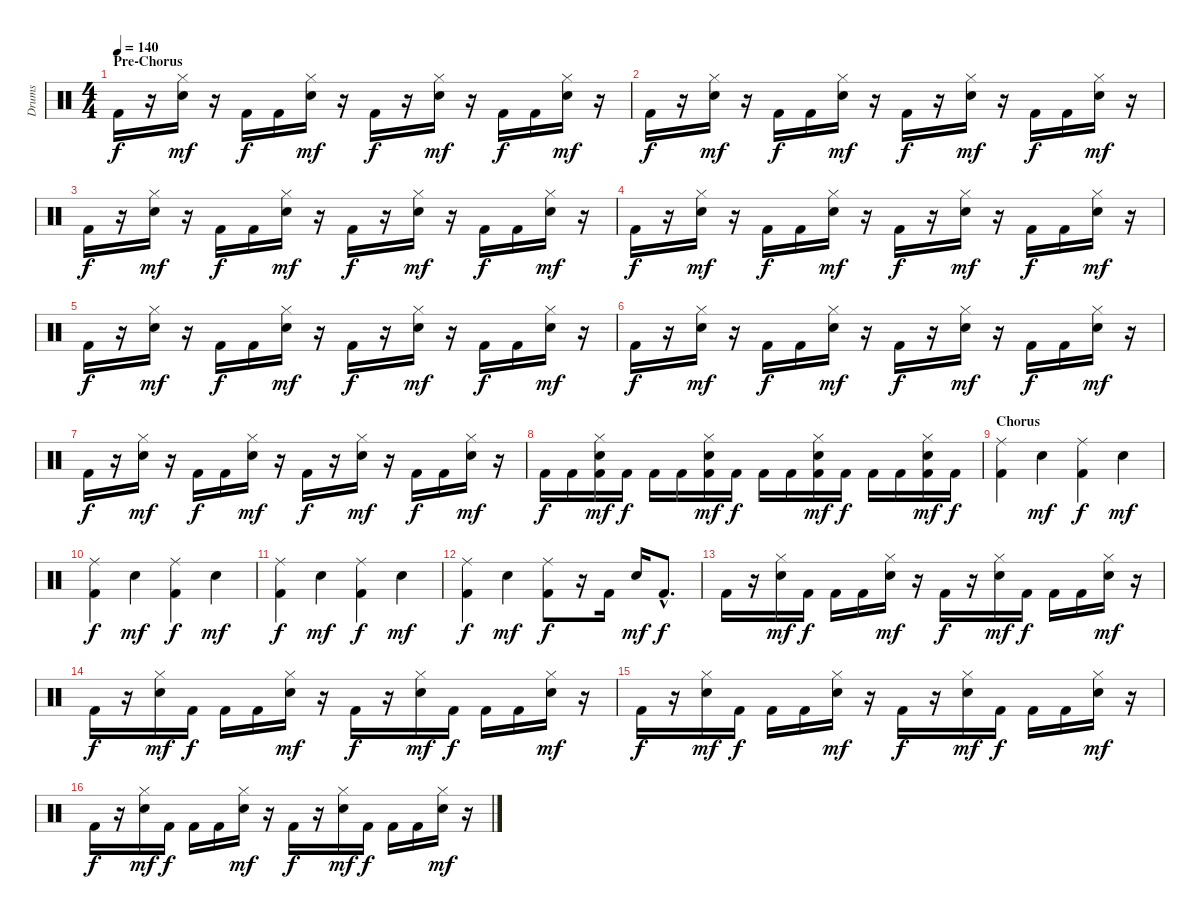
\track ("Drums" "Drums") {instrument percussion}
\staff {score}
\articulation defaults
\ts (4 4)
\section ("" "Pre-Chorus")
\tempo 140
\clef neutral
\ks c "Kick (hit) 2".16{dy f}
r.16 ("Snare (hit) 2" "Hi-Hat (closed)").16{dy mf} r.16 "Kick (hit) 2".16{dy f} "Kick (hit) 2".16 ("Snare (hit) 2" "Hi-Hat (closed)").16{dy mf} r.16 "Kick (hit) 2".16{dy f} r.16 ("Snare (hit) 2" "Hi-Hat (closed)").16{dy mf} r.16 "Kick (hit) 2".16{dy f} "Kick (hit) 2".16 ("Snare (hit) 2" "Hi-Hat (closed)").16{dy mf} r.16 |
"Kick (hit) 2".16{dy f} r.16 ("Snare (hit) 2" "Hi-Hat (closed)").16{dy mf} r.16 "Kick (hit) 2".16{dy f} "Kick (hit) 2".16 ("Snare (hit) 2" "Hi-Hat (closed)").16{dy mf} r.16 "Kick (hit) 2".16{dy f} r.16 ("Snare (hit) 2" "Hi-Hat (closed)").16{dy mf} r.16 "Kick (hit) 2".16{dy f} "Kick (hit) 2".16 ("Snare (hit) 2" "Hi-Hat (closed)").16{dy mf} r.16 |
"Kick (hit) 2".16{dy f} r.16 ("Snare (hit) 2" "Hi-Hat (closed)").16{dy mf} r.16 "Kick (hit) 2".16{dy f} "Kick (hit) 2".16 ("Snare (hit) 2" "Hi-Hat (closed)").16{dy mf} r.16 "Kick (hit) 2".16{dy f} r.16 ("Snare (hit) 2" "Hi-Hat (closed)").16{dy mf} r.16 "Kick (hit) 2".16{dy f} "Kick (hit) 2".16 ("Snare (hit) 2" "Hi-Hat (closed)").16{dy mf} r.16 |
"Kick (hit) 2".16{dy f} r.16 ("Snare (hit) 2" "Hi-Hat (closed)").16{dy mf} r.16 "Kick (hit) 2".16{dy f} "Kick (hit) 2".16 ("Snare (hit) 2" "Hi-Hat (closed)").16{dy mf} r.16 "Kick (hit) 2".16{dy f} r.16 ("Snare (hit) 2" "Hi-Hat (closed)").16{dy mf} r.16 "Kick (hit) 2".16{dy f} "Kick (hit) 2".16 ("Snare (hit) 2" "Hi-Hat (closed)").16{dy mf} r.16 |
"Kick (hit) 2".16{dy f} r.16 ("Snare (hit) 2" "Hi-Hat (closed)").16{dy mf} r.16 "Kick (hit) 2".16{dy f} "Kick (hit) 2".16 ("Snare (hit) 2" "Hi-Hat (closed)").16{dy mf} r.16 "Kick (hit) 2".16{dy f} r.16 ("Snare (hit) 2" "Hi-Hat (closed)").16{dy mf} r.16 "Kick (hit) 2".16{dy f} "Kick (hit) 2".16 ("Snare (hit) 2" "Hi-Hat (closed)").16{dy mf} r.16 |
"Kick (hit) 2".16{dy f} r.16 ("Snare (hit) 2" "Hi-Hat (closed)").16{dy mf} r.16 "Kick (hit) 2".16{dy f} "Kick (hit) 2".16 ("Snare (hit) 2" "Hi-Hat (closed)").16{dy mf} r.16 "Kick (hit) 2".16{dy f} r.16 ("Snare (hit) 2" "Hi-Hat (closed)").16{dy mf} r.16 "Kick (hit) 2".16{dy f} "Kick (hit) 2".16 ("Snare (hit) 2" "Hi-Hat (closed)").16{dy mf} r.16 |
"Kick (hit) 2".16{dy f} r.16 ("Snare (hit) 2" "Hi-Hat (closed)").16{dy mf} r.16 "Kick (hit) 2".16{dy f} "Kick (hit) 2".16 ("Snare (hit) 2" "Hi-Hat (closed)").16{dy mf} r.16 "Kick (hit) 2".16{dy f} r.16 ("Snare (hit) 2" "Hi-Hat (closed)").16{dy mf} r.16 "Kick (hit) 2".16{dy f} "Kick (hit) 2".16 ("Snare (hit) 2" "Hi-Hat (closed)").16{dy mf} r.16 |
"Kick (hit) 2".16{dy f} "Kick (hit) 2".16 ("Kick (hit) 2" "Snare (hit) 2" "Hi-Hat (closed)").16{dy mf} "Kick (hit) 2".16{dy f} "Kick (hit) 2".16 "Kick (hit) 2".16 ("Kick (hit) 2" "Snare (hit) 2" "Hi-Hat (closed)").16{dy mf} "Kick (hit) 2".16{dy f} "Kick (hit) 2".16 "Kick (hit) 2".16 ("Kick (hit) 2" "Snare (hit) 2" "Hi-Hat (closed)").16{dy mf} "Kick (hit) 2".16{dy f} "Kick (hit) 2".16 "Kick (hit) 2".16 ("Kick (hit) 2" "Snare (hit) 2" "Hi-Hat (closed)").16{dy mf} "Kick (hit) 2".16{dy f} |
\section ("" "Chorus")
("Kick (hit) 2" "Ride (middle)").4 "Snare (hit) 2".4{dy mf} ("Kick (hit) 2" "Ride (middle)").4{dy f} "Snare (hit) 2".4{dy mf} |
("Kick (hit) 2" "Ride (middle)").4{dy f} "Snare (hit) 2".4{dy mf} ("Kick (hit) 2" "Ride (middle)").4{dy f} "Snare (hit) 2".4{dy mf} |
("Kick (hit) 2" "Ride (middle)").4{dy f} "Snare (hit) 2".4{dy mf} ("Kick (hit) 2" "Ride (middle)").4{dy f} "Snare (hit) 2".4{dy mf} |
("Kick (hit) 2" "Ride (middle)").4{dy f} "Snare (hit) 2".4{dy mf} ("Kick (hit) 2" "Ride (middle)").8{dy f} r.16 "Kick (hit) 2".16 "Snare (hit) 2".16{dy mf} "Kick (hit) 2"{hac}.8{d dy f} |
"Kick (hit) 2".16 r.16 ("Snare (hit) 2" "Hi-Hat (closed)").16{dy mf} "Kick (hit) 2".16{dy f} "Kick (hit) 2".16 "Kick (hit) 2".16 ("Snare (hit) 2" "Hi-Hat (closed)").16{dy mf} r.16 "Kick (hit) 2".16{dy f} r.16 ("Snare (hit) 2" "Hi-Hat (closed)").16{dy mf} "Kick (hit) 2".16{dy f} "Kick (hit) 2".16 "Kick (hit) 2".16 ("Snare (hit) 2" "Hi-Hat (closed)").16{dy mf} r.16 |
"Kick (hit) 2".16{dy f} r.16 ("Snare (hit) 2" "Hi-Hat (closed)").16{dy mf} "Kick (hit) 2".16{dy f} "Kick (hit) 2".16 "Kick (hit) 2".16 ("Snare (hit) 2" "Hi-Hat (closed)").16{dy mf} r.16 "Kick (hit) 2".16{dy f} r.16 ("Snare (hit) 2" "Hi-Hat (closed)").16{dy mf} "Kick (hit) 2".16{dy f} "Kick (hit) 2".16 "Kick (hit) 2".16 ("Snare (hit) 2" "Hi-Hat (closed)").16{dy mf} r.16 |
"Kick (hit) 2".16{dy f} r.16 ("Snare (hit) 2" "Hi-Hat (closed)").16{dy mf} "Kick (hit) 2".16{dy f} "Kick (hit) 2".16 "Kick (hit) 2".16 ("Snare (hit) 2" "Hi-Hat (closed)").16{dy mf} r.16 "Kick (hit) 2".16{dy f} r.16 ("Snare (hit) 2" "Hi-Hat (closed)").16{dy mf} "Kick (hit) 2".16{dy f} "Kick (hit) 2".16 "Kick (hit) 2".16 ("Snare (hit) 2" "Hi-Hat (closed)").16{dy mf} r.16 |
"Kick (hit) 2".16{dy f} r.16 ("Snare (hit) 2" "Hi-Hat (closed)").16{dy mf} "Kick (hit) 2".16{dy f} "Kick (hit) 2".16 "Kick (hit) 2".16 ("Snare (hit) 2" "Hi-Hat (closed)").16{dy mf} r.16 "Kick (hit) 2".16{dy f} r.16 ("Snare (hit) 2" "Hi-Hat (closed)").16{dy mf} "Kick (hit) 2".16{dy f} "Kick (hit) 2".16 "Kick (hit) 2".16 ("Snare (hit) 2" "Hi-Hat (closed)").16{dy mf} r.16
